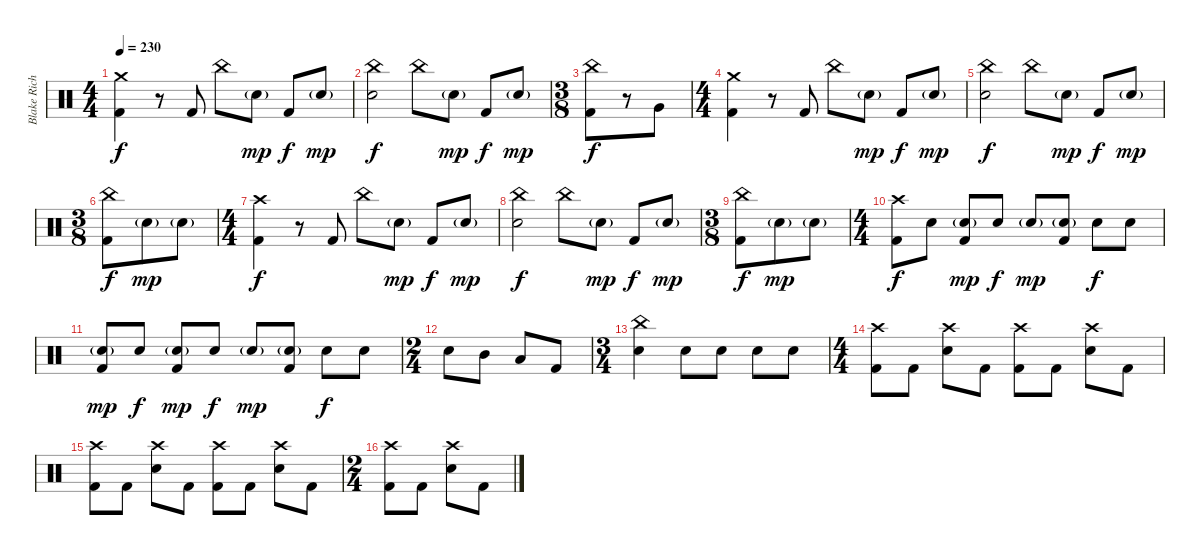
\track ("Blake Richardson - Drums" "Blake Rich") {instrument percussion}
\staff {score}
\articulation defaults
\ts (4 4)
\tempo 230
\clef neutral
\ks c
("Crash medium (hit)" "Kick (hit) 2").4{dy f} r.8 "Kick (hit) 2".8 "China (hit)".8 "Electric Snare (hit)"{g}.8{dy mp} "Kick (hit) 2".8{dy f} "Electric Snare (hit)"{g}.8{dy mp} |
("China (hit)" "Electric Snare (hit)").2{dy f} "China (hit)".8 "Electric Snare (hit)"{g}.8{dy mp} "Kick (hit) 2".8{dy f} "Electric Snare (hit)"{g}.8{dy mp} |
\ts (3 8)
("China (hit)" "Kick (hit) 2").8{dy f} r.8 "Very Low Tom (hit)".8 |
\ts (4 4)
("Crash medium (hit)" "Kick (hit) 2").4 r.8 "Kick (hit) 2".8 "China (hit)".8 "Electric Snare (hit)"{g}.8{dy mp} "Kick (hit) 2".8{dy f} "Electric Snare (hit)"{g}.8{dy mp} |
("China (hit)" "Electric Snare (hit)").2{dy f} "China (hit)".8 "Electric Snare (hit)"{g}.8{dy mp} "Kick (hit) 2".8{dy f} "Electric Snare (hit)"{g}.8{dy mp} |
\ts (3 8)
("China (hit)" "Kick (hit) 2").8{dy f} "Electric Snare (hit)"{g}.8{dy mp} "Electric Snare (hit)"{g}.8 |
\ts (4 4)
("Crash high (hit)" "Kick (hit) 2").4{dy f} r.8 "Kick (hit) 2".8 "China (hit)".8 "Electric Snare (hit)"{g}.8{dy mp} "Kick (hit) 2".8{dy f} "Electric Snare (hit)"{g}.8{dy mp} |
("China (hit)" "Electric Snare (hit)").2{dy f} "China (hit)".8 "Electric Snare (hit)"{g}.8{dy mp} "Kick (hit) 2".8{dy f} "Electric Snare (hit)"{g}.8{dy mp} |
\ts (3 8)
("China (hit)" "Kick (hit) 2").8{dy f} "Electric Snare (hit)"{g}.8{dy mp} "Electric Snare (hit)"{g}.8 |
\ts (4 4)
("Crash high (hit)" "Kick (hit) 2").8{dy f} "Electric Snare (hit)".8 ("Electric Snare (hit)"{g} "Kick (hit) 2").8{dy mp} "Electric Snare (hit)".8{dy f} "Electric Snare (hit)"{g}.8{dy mp} ("Electric Snare (hit)"{g} "Kick (hit) 2").8 "Electric Snare (hit)".8{dy f} "Electric Snare (hit)".8 |
("Electric Snare (hit)"{g} "Kick (hit) 2").8{dy mp} "Electric Snare (hit)".8{dy f} ("Electric Snare (hit)"{g} "Kick (hit) 2").8{dy mp} "Electric Snare (hit)".8{dy f} "Electric Snare (hit)"{g}.8{dy mp} ("Electric Snare (hit)"{g} "Kick (hit) 2").8 "Electric Snare (hit)".8{dy f} "Electric Snare (hit)".8 |
\ts (2 4)
"Electric Snare (hit)".8 "Mid Tom (hit)".8 "Low Tom (hit)".8 "Kick (hit) 2".8 |
\ts (3 4)
("China (hit)" "Electric Snare (hit)").4 "Electric Snare (hit)".8 "Electric Snare (hit)".8 "Electric Snare (hit)".8 "Electric Snare (hit)".8 |
\ts (4 4)
("Crash high (hit)" "Kick (hit) 2").8 "Kick (hit) 2".8 ("Crash high (hit)" "Electric Snare (hit)").8 "Kick (hit) 2".8 ("Crash high (hit)" "Kick (hit) 2").8 "Kick (hit) 2".8 ("Crash high (hit)" "Electric Snare (hit)").8 "Kick (hit) 2".8 |
("Crash high (hit)" "Kick (hit) 2").8 "Kick (hit) 2".8 ("Crash high (hit)" "Electric Snare (hit)").8 "Kick (hit) 2".8 ("Crash high (hit)" "Kick (hit) 2").8 "Kick (hit) 2".8 ("Crash high (hit)" "Electric Snare (hit)").8 "Kick (hit) 2".8 |
\ts (2 4)
("Crash high (hit)" "Kick (hit) 2").8 "Kick (hit) 2".8 ("Crash high (hit)" "Electric Snare (hit)").8 "Kick (hit) 2".8
